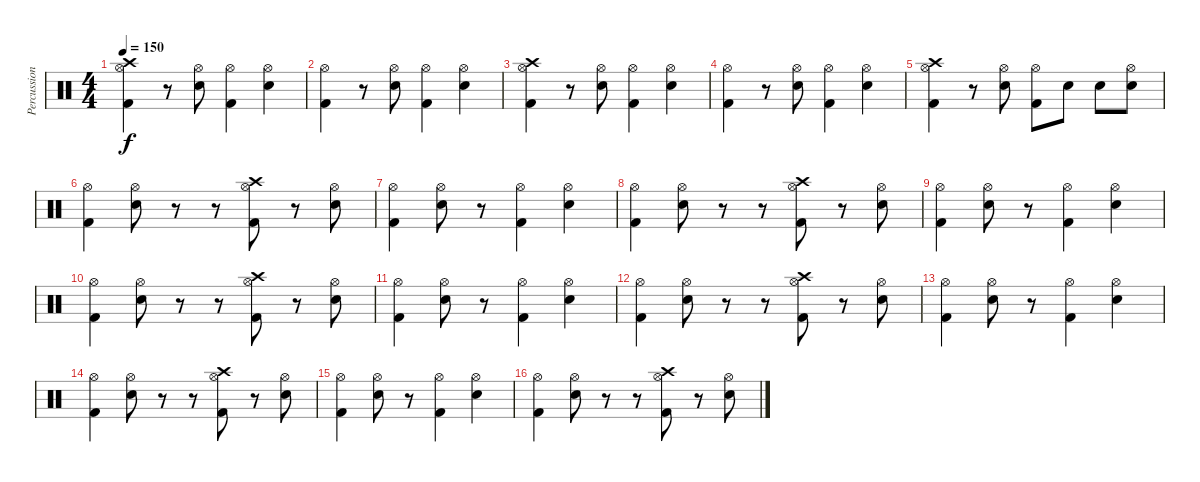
\track ("Percussion" "Percussion") {instrument percussion}
\staff {score}
\articulation defaults
\ts (4 4)
\tempo 150
\clef neutral
\ks c
("Crash high (hit)" "Hi-Hat (open)" "Kick (hit) 2").4{dy f} r.8 ("Hi-Hat (open)" "Electric Snare (hit)").8 ("Hi-Hat (open)" "Kick (hit) 2").4 ("Hi-Hat (open)" "Electric Snare (hit)").4 |
("Hi-Hat (open)" "Kick (hit) 2").4 r.8 ("Hi-Hat (open)" "Electric Snare (hit)").8 ("Hi-Hat (open)" "Kick (hit) 2").4 ("Hi-Hat (open)" "Electric Snare (hit)").4 |
("Crash high (hit)" "Hi-Hat (open)" "Kick (hit) 2").4 r.8 ("Hi-Hat (open)" "Electric Snare (hit)").8 ("Hi-Hat (open)" "Kick (hit) 2").4 ("Hi-Hat (open)" "Electric Snare (hit)").4 |
("Hi-Hat (open)" "Kick (hit) 2").4 r.8 ("Hi-Hat (open)" "Electric Snare (hit)").8 ("Hi-Hat (open)" "Kick (hit) 2").4 ("Hi-Hat (open)" "Electric Snare (hit)").4 |
("Crash high (hit)" "Hi-Hat (open)" "Kick (hit) 2").4 r.8 ("Hi-Hat (open)" "Electric Snare (hit)").8 ("Hi-Hat (open)" "Kick (hit) 2").8 "Electric Snare (hit)".8 "Electric Snare (hit)".8 ("Hi-Hat (open)" "Electric Snare (hit)").8 |
("Hi-Hat (open)" "Kick (hit) 2").4 ("Hi-Hat (open)" "Electric Snare (hit)").8 r.8 r.8 ("Crash high (hit)" "Hi-Hat (open)" "Kick (hit) 2").8 r.8 ("Hi-Hat (open)" "Electric Snare (hit)").8 |
("Hi-Hat (open)" "Kick (hit) 2").4 ("Hi-Hat (open)" "Electric Snare (hit)").8 r.8 ("Hi-Hat (open)" "Kick (hit) 2").4 ("Hi-Hat (open)" "Electric Snare (hit)").4 |
("Hi-Hat (open)" "Kick (hit) 2").4 ("Hi-Hat (open)" "Electric Snare (hit)").8 r.8 r.8 ("Crash high (hit)" "Hi-Hat (open)" "Kick (hit) 2").8 r.8 ("Hi-Hat (open)" "Electric Snare (hit)").8 |
("Hi-Hat (open)" "Kick (hit) 2").4 ("Hi-Hat (open)" "Electric Snare (hit)").8 r.8 ("Hi-Hat (open)" "Kick (hit) 2").4 ("Hi-Hat (open)" "Electric Snare (hit)").4 |
("Hi-Hat (open)" "Kick (hit) 2").4 ("Hi-Hat (open)" "Electric Snare (hit)").8 r.8 r.8 ("Crash high (hit)" "Hi-Hat (open)" "Kick (hit) 2").8 r.8 ("Hi-Hat (open)" "Electric Snare (hit)").8 |
("Hi-Hat (open)" "Kick (hit) 2").4 ("Hi-Hat (open)" "Electric Snare (hit)").8 r.8 ("Hi-Hat (open)" "Kick (hit) 2").4 ("Hi-Hat (open)" "Electric Snare (hit)").4 |
("Hi-Hat (open)" "Kick (hit) 2").4 ("Hi-Hat (open)" "Electric Snare (hit)").8 r.8 r.8 ("Crash high (hit)" "Hi-Hat (open)" "Kick (hit) 2").8 r.8 ("Hi-Hat (open)" "Electric Snare (hit)").8 |
("Hi-Hat (open)" "Kick (hit) 2").4 ("Hi-Hat (open)" "Electric Snare (hit)").8 r.8 ("Hi-Hat (open)" "Kick (hit) 2").4 ("Hi-Hat (open)" "Electric Snare (hit)").4 |
("Hi-Hat (open)" "Kick (hit) 2").4 ("Hi-Hat (open)" "Electric Snare (hit)").8 r.8 r.8 ("Crash high (hit)" "Hi-Hat (open)" "Kick (hit) 2").8 r.8 ("Hi-Hat (open)" "Electric Snare (hit)").8 |
("Hi-Hat (open)" "Kick (hit) 2").4 ("Hi-Hat (open)" "Electric Snare (hit)").8 r.8 ("Hi-Hat (open)" "Kick (hit) 2").4 ("Hi-Hat (open)" "Electric Snare (hit)").4 |
("Hi-Hat (open)" "Kick (hit) 2").4 ("Hi-Hat (open)" "Electric Snare (hit)").8 r.8 r.8 ("Crash high (hit)" "Hi-Hat (open)" "Kick (hit) 2").8 r.8 ("Hi-Hat (open)" "Electric Snare (hit)").8
